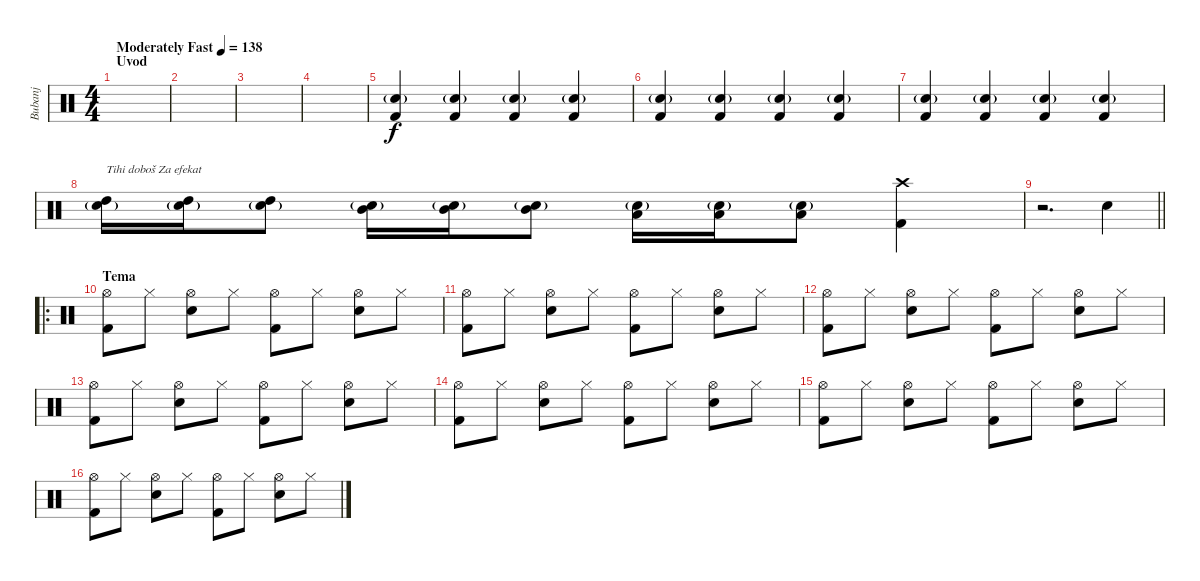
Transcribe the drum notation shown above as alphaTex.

\track ("Bubanj" "Bubanj") {instrument percussion}
\staff {score}
\articulation defaults
\ts (4 4)
\section ("" "Uvod")
\tempo (138 "Moderately Fast")
\clef neutral
\ks c
|
|
|
|
("Kick (hit) 2" "Snare (hit) 2"{g}).4{volume 13} ("Kick (hit) 2" "Snare (hit) 2"{g}).4 ("Kick (hit) 2" "Snare (hit) 2"{g}).4 ("Kick (hit) 2" "Snare (hit) 2"{g}).4 |
("Kick (hit) 2" "Snare (hit) 2"{g}).4 ("Kick (hit) 2" "Snare (hit) 2"{g}).4 ("Kick (hit) 2" "Snare (hit) 2"{g}).4 ("Kick (hit) 2" "Snare (hit) 2"{g}).4 |
("Kick (hit) 2" "Snare (hit) 2"{g}).4 ("Kick (hit) 2" "Snare (hit) 2"{g}).4 ("Kick (hit) 2" "Snare (hit) 2"{g}).4 ("Kick (hit) 2" "Snare (hit) 2"{g}).4 |
("High Tom (hit)" "Snare (hit) 2"{g}).16{txt "Tihi doboš Za efekat"} ("High Tom (hit)" "Snare (hit) 2"{g}).16 ("High Tom (hit)" "Snare (hit) 2"{g}).8 ("Mid Tom (hit)" "Snare (hit) 2"{g}).16 ("Mid Tom (hit)" "Snare (hit) 2"{g}).16 ("Mid Tom (hit)" "Snare (hit) 2"{g}).8 ("Low Tom (hit)" "Snare (hit) 2"{g}).16 ("Low Tom (hit)" "Snare (hit) 2"{g}).16 ("Low Tom (hit)" "Snare (hit) 2"{g}).8 ("Crash high (hit)" "Kick (hit) 2").4{dy f} |
\barLineRight lightlight
r.2{d} "Snare (hit) 2".4 |
\ro
\section ("" "Tema")
("Hi-Hat (open)" "Kick (hit) 2").8 "Hi-Hat (closed)".8 ("Hi-Hat (open)" "Snare (hit) 2").8 "Hi-Hat (closed)".8 ("Hi-Hat (open)" "Kick (hit) 2").8 "Hi-Hat (closed)".8 ("Hi-Hat (open)" "Snare (hit) 2").8 "Hi-Hat (closed)".8 |
("Hi-Hat (open)" "Kick (hit) 2").8 "Hi-Hat (closed)".8 ("Hi-Hat (open)" "Snare (hit) 2").8 "Hi-Hat (closed)".8 ("Hi-Hat (open)" "Kick (hit) 2").8 "Hi-Hat (closed)".8 ("Hi-Hat (open)" "Snare (hit) 2").8 "Hi-Hat (closed)".8 |
("Hi-Hat (open)" "Kick (hit) 2").8 "Hi-Hat (closed)".8 ("Hi-Hat (open)" "Snare (hit) 2").8 "Hi-Hat (closed)".8 ("Hi-Hat (open)" "Kick (hit) 2").8 "Hi-Hat (closed)".8 ("Hi-Hat (open)" "Snare (hit) 2").8 "Hi-Hat (closed)".8 |
("Hi-Hat (open)" "Kick (hit) 2").8 "Hi-Hat (closed)".8 ("Hi-Hat (open)" "Snare (hit) 2").8 "Hi-Hat (closed)".8 ("Hi-Hat (open)" "Kick (hit) 2").8 "Hi-Hat (closed)".8 ("Hi-Hat (open)" "Snare (hit) 2").8 "Hi-Hat (closed)".8 |
("Hi-Hat (open)" "Kick (hit) 2").8 "Hi-Hat (closed)".8 ("Hi-Hat (open)" "Snare (hit) 2").8 "Hi-Hat (closed)".8 ("Hi-Hat (open)" "Kick (hit) 2").8 "Hi-Hat (closed)".8 ("Hi-Hat (open)" "Snare (hit) 2").8 "Hi-Hat (closed)".8 |
("Hi-Hat (open)" "Kick (hit) 2").8 "Hi-Hat (closed)".8 ("Hi-Hat (open)" "Snare (hit) 2").8 "Hi-Hat (closed)".8 ("Hi-Hat (open)" "Kick (hit) 2").8 "Hi-Hat (closed)".8 ("Hi-Hat (open)" "Snare (hit) 2").8 "Hi-Hat (closed)".8 |
("Hi-Hat (open)" "Kick (hit) 2").8 "Hi-Hat (closed)".8 ("Hi-Hat (open)" "Snare (hit) 2").8 "Hi-Hat (closed)".8 ("Hi-Hat (open)" "Kick (hit) 2").8 "Hi-Hat (closed)".8 ("Hi-Hat (open)" "Snare (hit) 2").8 "Hi-Hat (closed)".8
